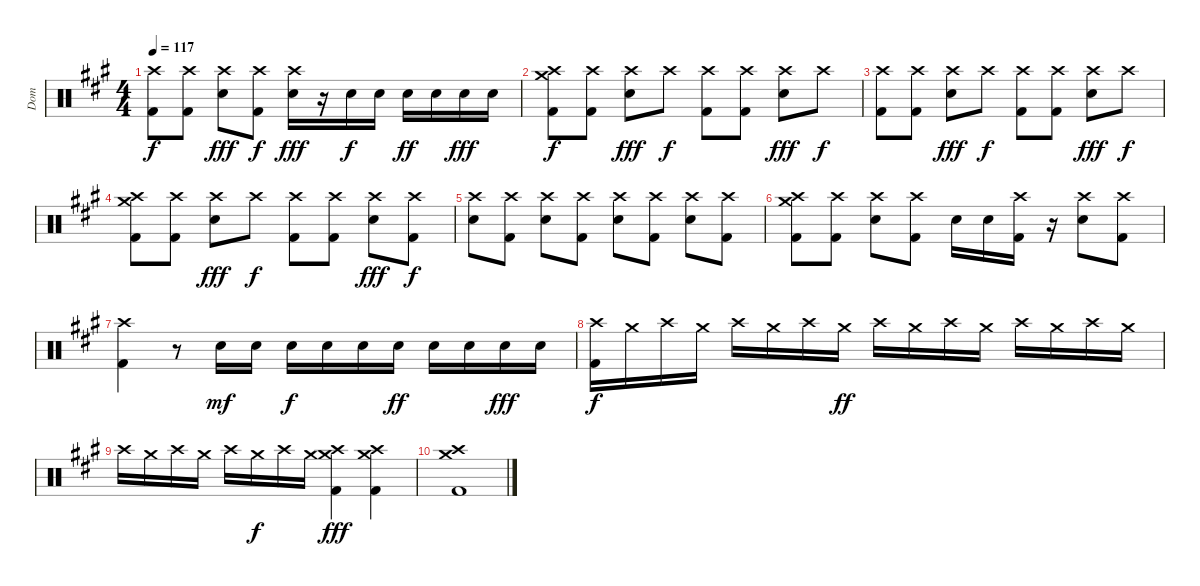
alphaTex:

\track ("Dom" "Dom") {instrument percussion}
\staff {score}
\articulation defaults
\ts (4 4)
\tempo 117
\clef neutral
\ks a
("Crash high (hit)" "Kick (hit) 2").8{dy f} ("Crash high (hit)" "Kick (hit) 2").8 ("Crash high (hit)" "Snare (hit) 2").8{dy fff} ("Crash high (hit)" "Kick (hit) 2").8{dy f} ("Crash high (hit)" "Snare (hit) 2").16{dy fff} r.16 "Snare (hit) 2".16{dy f} "Snare (hit) 2".16 "Snare (hit) 2".16{dy ff} "Snare (hit) 2".16 "Snare (hit) 2".16{dy fff} "Snare (hit) 2".16 |
("Crash medium (hit)" "Crash high (hit)" "Kick (hit) 2").8{dy f} ("Crash high (hit)" "Kick (hit) 2").8 ("Crash high (hit)" "Snare (hit) 2").8{dy fff} "Crash high (hit)".8{dy f} ("Crash high (hit)" "Kick (hit) 2").8 ("Crash high (hit)" "Kick (hit) 2").8 ("Crash high (hit)" "Snare (hit) 2").8{dy fff} "Crash high (hit)".8{dy f} |
("Crash high (hit)" "Kick (hit) 2").8 ("Crash high (hit)" "Kick (hit) 2").8 ("Crash high (hit)" "Snare (hit) 2").8{dy fff} "Crash high (hit)".8{dy f} ("Crash high (hit)" "Kick (hit) 2").8 ("Crash high (hit)" "Kick (hit) 2").8 ("Crash high (hit)" "Snare (hit) 2").8{dy fff} "Crash high (hit)".8{dy f} |
("Crash medium (hit)" "Crash high (hit)" "Kick (hit) 2").8 ("Crash high (hit)" "Kick (hit) 2").8 ("Crash high (hit)" "Snare (hit) 2").8{dy fff} "Crash high (hit)".8{dy f} ("Crash high (hit)" "Kick (hit) 2").8 ("Crash high (hit)" "Kick (hit) 2").8 ("Crash high (hit)" "Snare (hit) 2").8{dy fff} ("Crash high (hit)" "Kick (hit) 2").8{dy f} |
("Crash high (hit)" "Snare (hit) 2").8 ("Crash high (hit)" "Kick (hit) 2").8 ("Crash high (hit)" "Snare (hit) 2").8 ("Crash high (hit)" "Kick (hit) 2").8 ("Crash high (hit)" "Snare (hit) 2").8 ("Crash high (hit)" "Kick (hit) 2").8 ("Crash high (hit)" "Snare (hit) 2").8 ("Crash high (hit)" "Kick (hit) 2").8 |
("Crash medium (hit)" "Crash high (hit)" "Kick (hit) 2").8 ("Crash high (hit)" "Kick (hit) 2").8 ("Crash high (hit)" "Snare (hit) 2").8 ("Crash high (hit)" "Kick (hit) 2").8 "Snare (hit) 2".16 "Snare (hit) 2".16 ("Crash high (hit)" "Kick (hit) 2").16 r.16 ("Crash high (hit)" "Snare (hit) 2").8 ("Crash high (hit)" "Kick (hit) 2").8 |
("Crash high (hit)" "Kick (hit) 2").4 r.8 "Snare (hit) 2".16{dy mf} "Snare (hit) 2".16 "Snare (hit) 2".16{dy f} "Snare (hit) 2".16 "Snare (hit) 2".16 "Snare (hit) 2".16{dy ff} "Snare (hit) 2".16 "Snare (hit) 2".16 "Snare (hit) 2".16{dy fff} "Snare (hit) 2".16 |
("Crash high (hit)" "Kick (hit) 2").16{dy f} "Crash medium (hit)".16 "Crash high (hit)".16 "Crash medium (hit)".16 "Crash high (hit)".16 "Crash medium (hit)".16 "Crash high (hit)".16 "Crash medium (hit)".16{dy ff} "Crash high (hit)".16 "Crash medium (hit)".16 "Crash high (hit)".16 "Crash medium (hit)".16 "Crash high (hit)".16 "Crash medium (hit)".16 "Crash high (hit)".16 "Crash medium (hit)".16 |
"Crash high (hit)".16 "Crash medium (hit)".16 "Crash high (hit)".16 "Crash medium (hit)".16 "Crash high (hit)".16 "Crash medium (hit)".16{dy f} "Crash high (hit)".16 "Crash medium (hit)".16 ("Crash medium (hit)" "Crash high (hit)" "Kick (hit) 2").4{dy fff} ("Crash medium (hit)" "Crash high (hit)" "Kick (hit) 2").4 |
("Crash medium (hit)" "Crash high (hit)" "Kick (hit) 2").1
